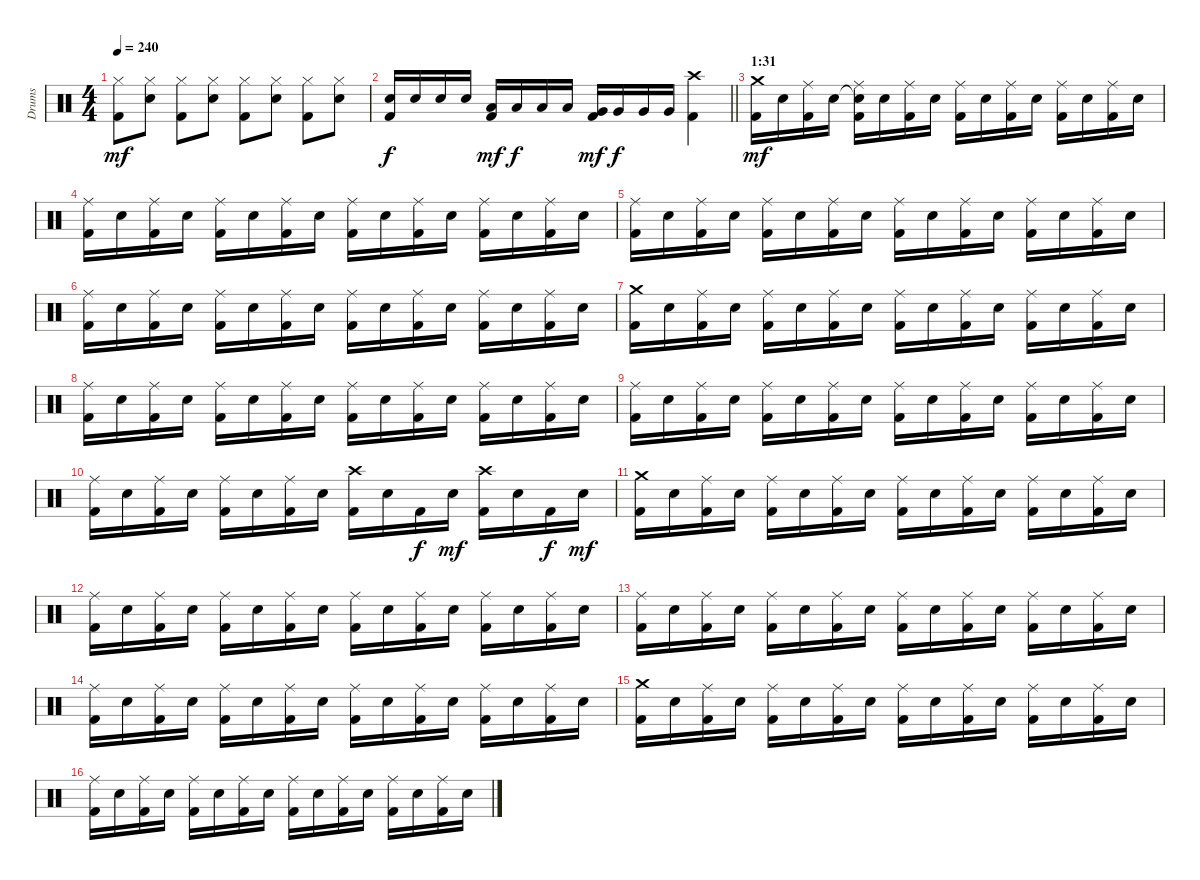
\track ("Drums" "Drums") {instrument percussion}
\staff {score}
\articulation defaults
\ts (4 4)
\tempo 240
\clef neutral
\ks c
("Hi-Hat (closed)" "Kick (hit) 2").8{dy mf} ("Hi-Hat (closed)" "Electric Snare (hit)").8 ("Hi-Hat (closed)" "Kick (hit) 2").8 ("Hi-Hat (closed)" "Electric Snare (hit)").8 ("Hi-Hat (closed)" "Kick (hit) 2").8 ("Hi-Hat (closed)" "Electric Snare (hit)").8 ("Hi-Hat (closed)" "Kick (hit) 2").8 ("Hi-Hat (closed)" "Electric Snare (hit)").8 |
\barLineRight lightlight
("Electric Snare (hit)" "Kick (hit) 2").16{dy f} "Electric Snare (hit)".16 "Electric Snare (hit)".16 "Electric Snare (hit)".16 ("Low Tom (hit)" "Kick (hit) 2").16{dy mf} "Low Tom (hit)".16{dy f} "Low Tom (hit)".16 "Low Tom (hit)".16 ("Very Low Tom (hit)" "Kick (hit) 2").16{dy mf} "Very Low Tom (hit)".16{dy f} "Very Low Tom (hit)".16 "Very Low Tom (hit)".16 ("Crash high (hit)" "Kick (hit) 2").4 |
\section ("" "1:31")
("Crash medium (hit)" "Kick (hit) 2").16{dy mf} "Electric Snare (hit)".16 ("Ride (middle)" "Kick (hit) 2").16 "Electric Snare (hit)".16 ("Snare (hit)"{t} "Ride (middle)" "Kick (hit) 2").16 "Electric Snare (hit)".16 ("Ride (middle)" "Kick (hit) 2").16 "Electric Snare (hit)".16 ("Ride (middle)" "Kick (hit) 2").16 "Electric Snare (hit)".16 ("Ride (middle)" "Kick (hit) 2").16 "Electric Snare (hit)".16 ("Ride (middle)" "Kick (hit) 2").16 "Electric Snare (hit)".16 ("Ride (middle)" "Kick (hit) 2").16 "Electric Snare (hit)".16 |
("Ride (middle)" "Kick (hit) 2").16 "Electric Snare (hit)".16 ("Ride (middle)" "Kick (hit) 2").16 "Electric Snare (hit)".16 ("Ride (middle)" "Kick (hit) 2").16 "Electric Snare (hit)".16 ("Ride (middle)" "Kick (hit) 2").16 "Electric Snare (hit)".16 ("Ride (middle)" "Kick (hit) 2").16 "Electric Snare (hit)".16 ("Ride (middle)" "Kick (hit) 2").16 "Electric Snare (hit)".16 ("Ride (middle)" "Kick (hit) 2").16 "Electric Snare (hit)".16 ("Ride (middle)" "Kick (hit) 2").16 "Electric Snare (hit)".16 |
("Ride (middle)" "Kick (hit) 2").16 "Electric Snare (hit)".16 ("Ride (middle)" "Kick (hit) 2").16 "Electric Snare (hit)".16 ("Ride (middle)" "Kick (hit) 2").16 "Electric Snare (hit)".16 ("Ride (middle)" "Kick (hit) 2").16 "Electric Snare (hit)".16 ("Ride (middle)" "Kick (hit) 2").16 "Electric Snare (hit)".16 ("Ride (middle)" "Kick (hit) 2").16 "Electric Snare (hit)".16 ("Ride (middle)" "Kick (hit) 2").16 "Electric Snare (hit)".16 ("Ride (middle)" "Kick (hit) 2").16 "Electric Snare (hit)".16 |
("Ride (middle)" "Kick (hit) 2").16 "Electric Snare (hit)".16 ("Ride (middle)" "Kick (hit) 2").16 "Electric Snare (hit)".16 ("Ride (middle)" "Kick (hit) 2").16 "Electric Snare (hit)".16 ("Ride (middle)" "Kick (hit) 2").16 "Electric Snare (hit)".16 ("Ride (middle)" "Kick (hit) 2").16 "Electric Snare (hit)".16 ("Ride (middle)" "Kick (hit) 2").16 "Electric Snare (hit)".16 ("Ride (middle)" "Kick (hit) 2").16 "Electric Snare (hit)".16 ("Ride (middle)" "Kick (hit) 2").16 "Electric Snare (hit)".16 |
("Crash medium (hit)" "Kick (hit) 2").16 "Electric Snare (hit)".16 ("Ride (middle)" "Kick (hit) 2").16 "Electric Snare (hit)".16 ("Ride (middle)" "Kick (hit) 2").16 "Electric Snare (hit)".16 ("Ride (middle)" "Kick (hit) 2").16 "Electric Snare (hit)".16 ("Ride (middle)" "Kick (hit) 2").16 "Electric Snare (hit)".16 ("Ride (middle)" "Kick (hit) 2").16 "Electric Snare (hit)".16 ("Ride (middle)" "Kick (hit) 2").16 "Electric Snare (hit)".16 ("Ride (middle)" "Kick (hit) 2").16 "Electric Snare (hit)".16 |
("Ride (middle)" "Kick (hit) 2").16 "Electric Snare (hit)".16 ("Ride (middle)" "Kick (hit) 2").16 "Electric Snare (hit)".16 ("Ride (middle)" "Kick (hit) 2").16 "Electric Snare (hit)".16 ("Ride (middle)" "Kick (hit) 2").16 "Electric Snare (hit)".16 ("Ride (middle)" "Kick (hit) 2").16 "Electric Snare (hit)".16 ("Ride (middle)" "Kick (hit) 2").16 "Electric Snare (hit)".16 ("Ride (middle)" "Kick (hit) 2").16 "Electric Snare (hit)".16 ("Ride (middle)" "Kick (hit) 2").16 "Electric Snare (hit)".16 |
("Ride (middle)" "Kick (hit) 2").16 "Electric Snare (hit)".16 ("Ride (middle)" "Kick (hit) 2").16 "Electric Snare (hit)".16 ("Ride (middle)" "Kick (hit) 2").16 "Electric Snare (hit)".16 ("Ride (middle)" "Kick (hit) 2").16 "Electric Snare (hit)".16 ("Ride (middle)" "Kick (hit) 2").16 "Electric Snare (hit)".16 ("Ride (middle)" "Kick (hit) 2").16 "Electric Snare (hit)".16 ("Ride (middle)" "Kick (hit) 2").16 "Electric Snare (hit)".16 ("Ride (middle)" "Kick (hit) 2").16 "Electric Snare (hit)".16 |
("Ride (middle)" "Kick (hit) 2").16 "Electric Snare (hit)".16 ("Ride (middle)" "Kick (hit) 2").16 "Electric Snare (hit)".16 ("Ride (middle)" "Kick (hit) 2").16 "Electric Snare (hit)".16 ("Ride (middle)" "Kick (hit) 2").16 "Electric Snare (hit)".16 ("Crash high (hit)" "Kick (hit) 2").16 "Electric Snare (hit)".16 "Kick (hit) 2".16{dy f} "Electric Snare (hit)".16{dy mf} ("Crash high (hit)" "Kick (hit) 2").16 "Electric Snare (hit)".16 "Kick (hit) 2".16{dy f} "Electric Snare (hit)".16{dy mf} |
("Crash medium (hit)" "Kick (hit) 2").16 "Electric Snare (hit)".16 ("Ride (middle)" "Kick (hit) 2").16 "Electric Snare (hit)".16 ("Ride (middle)" "Kick (hit) 2").16 "Electric Snare (hit)".16 ("Ride (middle)" "Kick (hit) 2").16 "Electric Snare (hit)".16 ("Ride (middle)" "Kick (hit) 2").16 "Electric Snare (hit)".16 ("Ride (middle)" "Kick (hit) 2").16 "Electric Snare (hit)".16 ("Ride (middle)" "Kick (hit) 2").16 "Electric Snare (hit)".16 ("Ride (middle)" "Kick (hit) 2").16 "Electric Snare (hit)".16 |
("Ride (middle)" "Kick (hit) 2").16 "Electric Snare (hit)".16 ("Ride (middle)" "Kick (hit) 2").16 "Electric Snare (hit)".16 ("Ride (middle)" "Kick (hit) 2").16 "Electric Snare (hit)".16 ("Ride (middle)" "Kick (hit) 2").16 "Electric Snare (hit)".16 ("Ride (middle)" "Kick (hit) 2").16 "Electric Snare (hit)".16 ("Ride (middle)" "Kick (hit) 2").16 "Electric Snare (hit)".16 ("Ride (middle)" "Kick (hit) 2").16 "Electric Snare (hit)".16 ("Ride (middle)" "Kick (hit) 2").16 "Electric Snare (hit)".16 |
("Ride (middle)" "Kick (hit) 2").16 "Electric Snare (hit)".16 ("Ride (middle)" "Kick (hit) 2").16 "Electric Snare (hit)".16 ("Ride (middle)" "Kick (hit) 2").16 "Electric Snare (hit)".16 ("Ride (middle)" "Kick (hit) 2").16 "Electric Snare (hit)".16 ("Ride (middle)" "Kick (hit) 2").16 "Electric Snare (hit)".16 ("Ride (middle)" "Kick (hit) 2").16 "Electric Snare (hit)".16 ("Ride (middle)" "Kick (hit) 2").16 "Electric Snare (hit)".16 ("Ride (middle)" "Kick (hit) 2").16 "Electric Snare (hit)".16 |
("Ride (middle)" "Kick (hit) 2").16 "Electric Snare (hit)".16 ("Ride (middle)" "Kick (hit) 2").16 "Electric Snare (hit)".16 ("Ride (middle)" "Kick (hit) 2").16 "Electric Snare (hit)".16 ("Ride (middle)" "Kick (hit) 2").16 "Electric Snare (hit)".16 ("Ride (middle)" "Kick (hit) 2").16 "Electric Snare (hit)".16 ("Ride (middle)" "Kick (hit) 2").16 "Electric Snare (hit)".16 ("Ride (middle)" "Kick (hit) 2").16 "Electric Snare (hit)".16 ("Ride (middle)" "Kick (hit) 2").16 "Electric Snare (hit)".16 |
("Crash medium (hit)" "Kick (hit) 2").16 "Electric Snare (hit)".16 ("Ride (middle)" "Kick (hit) 2").16 "Electric Snare (hit)".16 ("Ride (middle)" "Kick (hit) 2").16 "Electric Snare (hit)".16 ("Ride (middle)" "Kick (hit) 2").16 "Electric Snare (hit)".16 ("Ride (middle)" "Kick (hit) 2").16 "Electric Snare (hit)".16 ("Ride (middle)" "Kick (hit) 2").16 "Electric Snare (hit)".16 ("Ride (middle)" "Kick (hit) 2").16 "Electric Snare (hit)".16 ("Ride (middle)" "Kick (hit) 2").16 "Electric Snare (hit)".16 |
("Ride (middle)" "Kick (hit) 2").16 "Electric Snare (hit)".16 ("Ride (middle)" "Kick (hit) 2").16 "Electric Snare (hit)".16 ("Ride (middle)" "Kick (hit) 2").16 "Electric Snare (hit)".16 ("Ride (middle)" "Kick (hit) 2").16 "Electric Snare (hit)".16 ("Ride (middle)" "Kick (hit) 2").16 "Electric Snare (hit)".16 ("Ride (middle)" "Kick (hit) 2").16 "Electric Snare (hit)".16 ("Ride (middle)" "Kick (hit) 2").16 "Electric Snare (hit)".16 ("Ride (middle)" "Kick (hit) 2").16 "Electric Snare (hit)".16
